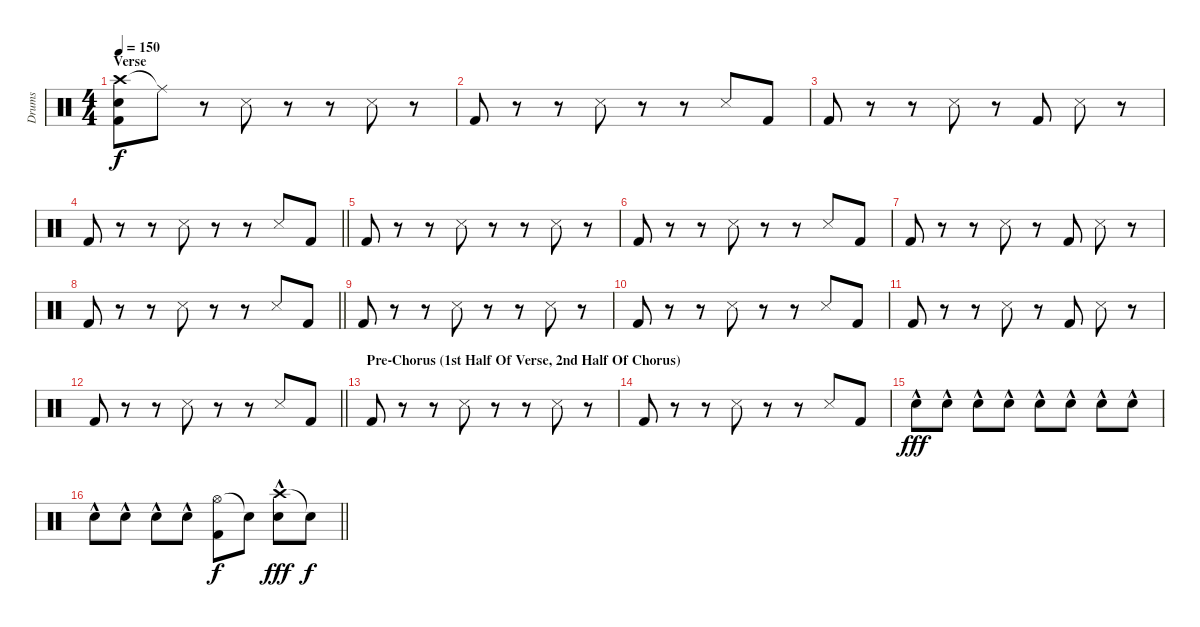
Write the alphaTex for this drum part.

\track ("Drums" "Drums") {instrument percussion}
\staff {score}
\articulation defaults
\ts (4 4)
\section ("" "Verse")
\tempo 150
\clef neutral
\ks c
("Crash high (hit)" "Electric Snare (hit)" "Kick (hit) 2").8{dy f} "Ride (middle)"{t}.8 r.8 "Snare (side stick) 3".8 r.8 r.8 "Snare (side stick) 3".8 r.8 |
"Kick (hit) 2".8 r.8 r.8 "Snare (side stick) 3".8 r.8 r.8 "Snare (side stick) 3".8 "Kick (hit) 2".8 |
"Kick (hit) 2".8 r.8 r.8 "Snare (side stick) 3".8 r.8 "Kick (hit) 2".8 "Snare (side stick) 3".8 r.8 |
\barLineRight lightlight "Kick (hit) 2".8
r.8 r.8 "Snare (side stick) 3".8 r.8 r.8 "Snare (side stick) 3".8 "Kick (hit) 2".8 |
"Kick (hit) 2".8 r.8 r.8 "Snare (side stick) 3".8 r.8 r.8 "Snare (side stick) 3".8 r.8 |
"Kick (hit) 2".8 r.8 r.8 "Snare (side stick) 3".8 r.8 r.8 "Snare (side stick) 3".8 "Kick (hit) 2".8 |
"Kick (hit) 2".8 r.8 r.8 "Snare (side stick) 3".8 r.8 "Kick (hit) 2".8 "Snare (side stick) 3".8 r.8 |
\barLineRight lightlight "Kick (hit) 2".8
r.8 r.8 "Snare (side stick) 3".8 r.8 r.8 "Snare (side stick) 3".8 "Kick (hit) 2".8 |
"Kick (hit) 2".8 r.8 r.8 "Snare (side stick) 3".8 r.8 r.8 "Snare (side stick) 3".8 r.8 |
"Kick (hit) 2".8 r.8 r.8 "Snare (side stick) 3".8 r.8 r.8 "Snare (side stick) 3".8 "Kick (hit) 2".8 |
"Kick (hit) 2".8 r.8 r.8 "Snare (side stick) 3".8 r.8 "Kick (hit) 2".8 "Snare (side stick) 3".8 r.8 |
\barLineRight lightlight "Kick (hit) 2".8
r.8 r.8 "Snare (side stick) 3".8 r.8 r.8 "Snare (side stick) 3".8 "Kick (hit) 2".8 |
\section ("" "Pre-Chorus (1st Half Of Verse, 2nd Half Of Chorus)")
"Kick (hit) 2".8 r.8 r.8 "Snare (side stick) 3".8 r.8 r.8 "Snare (side stick) 3".8 r.8 |
"Kick (hit) 2".8 r.8 r.8 "Snare (side stick) 3".8 r.8 r.8 "Snare (side stick) 3".8 "Kick (hit) 2".8 |
"Electric Snare (hit)"{hac}.8{dy fff} "Electric Snare (hit)"{hac}.8 "Electric Snare (hit)"{hac}.8 "Electric Snare (hit)"{hac}.8 "Electric Snare (hit)"{hac}.8 "Electric Snare (hit)"{hac}.8 "Electric Snare (hit)"{hac}.8 "Electric Snare (hit)"{hac}.8 |
\barLineRight lightlight "Electric Snare (hit)"{hac}.8 "Electric Snare (hit)"{hac}.8 "Electric Snare (hit)"{hac}.8 "Electric Snare (hit)"{hac}.8
("Hi-Hat (open)" "Kick (hit) 2").8{dy f} "Snare (hit)"{t}.8 ("Crash high (hit)" "Electric Snare (hit)"{hac}).8{dy fff} "Snare (hit)"{t}.8{dy f}
